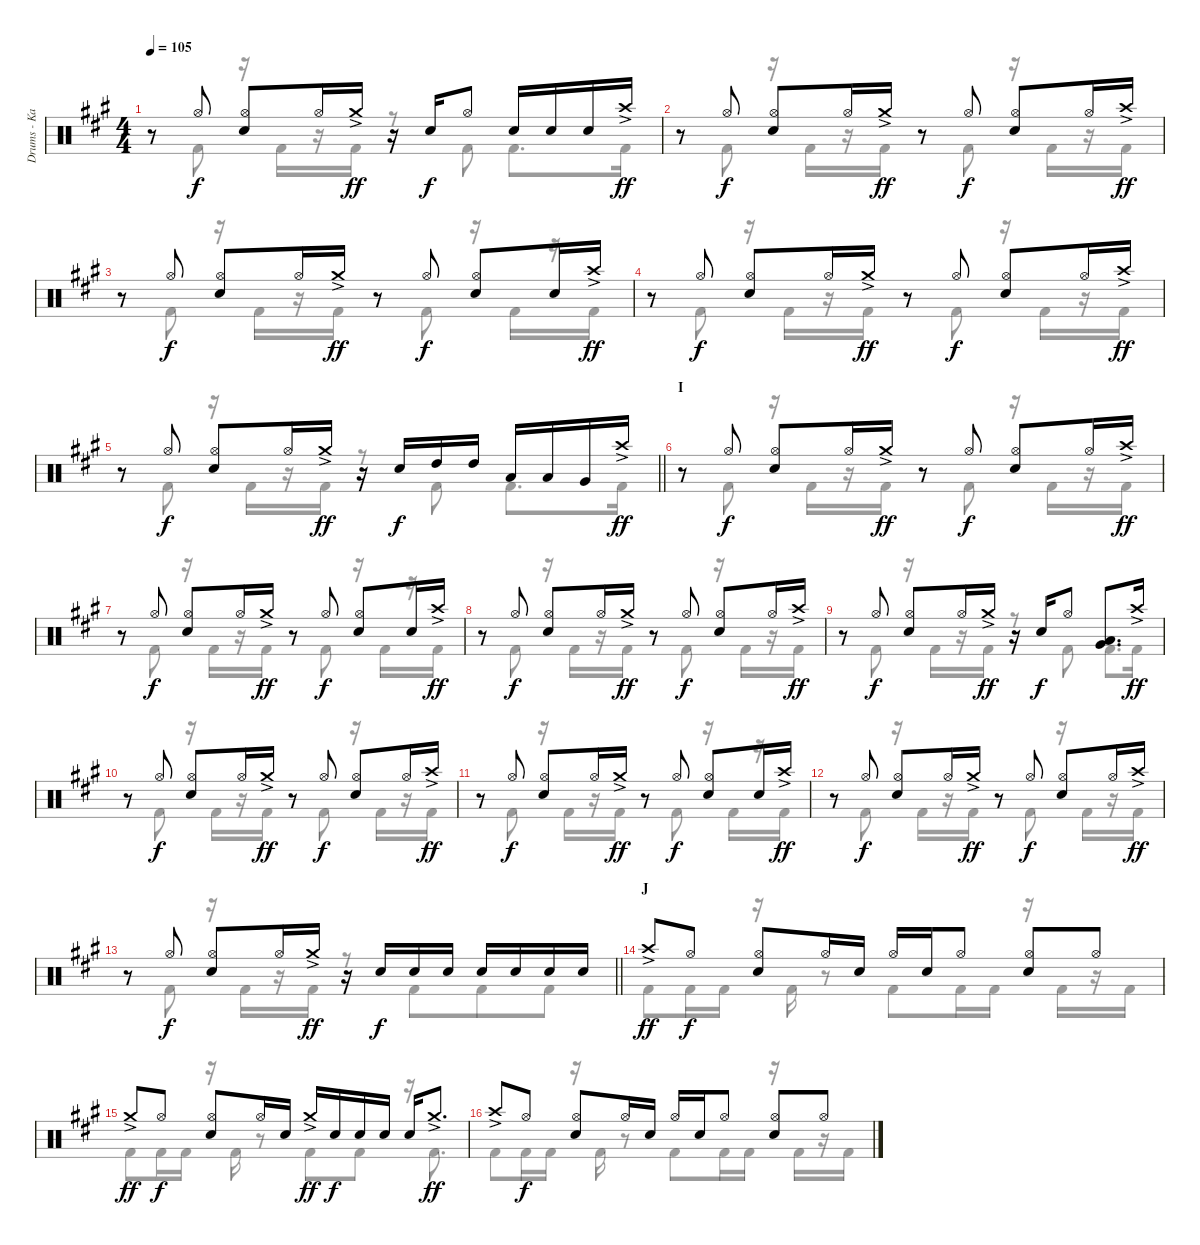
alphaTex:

\track ("Drums - Kai" "Drums - Ka") {instrument percussion}
\staff {score}
\articulation defaults
\voice
\ts (4 4)
\tempo 105
\clef neutral
\ks a
r.8{dy ff} "Hi-Hat (open)".8{dy f} ("Hi-Hat (open)" "Electric Snare (hit)").8 "Hi-Hat (open)".16 "Crash medium (hit)"{ac}.16{dy ff} r.16 "Electric Snare (hit)".16{dy f} "Hi-Hat (open)".8 "Electric Snare (hit)".16 "Electric Snare (hit)".16 "Electric Snare (hit)".16 "Crash high (hit)"{ac}.16{dy ff} |
r.8 "Hi-Hat (open)".8{dy f} ("Hi-Hat (open)" "Electric Snare (hit)").8 "Hi-Hat (open)".16 "Crash medium (hit)"{ac}.16{dy ff} r.8 "Hi-Hat (open)".8{dy f} ("Hi-Hat (open)" "Electric Snare (hit)").8 "Hi-Hat (open)".16 "Crash high (hit)"{ac}.16{dy ff} |
r.8 "Hi-Hat (open)".8{dy f} ("Hi-Hat (open)" "Electric Snare (hit)").8 "Hi-Hat (open)".16 "Crash medium (hit)"{ac}.16{dy ff} r.8 "Hi-Hat (open)".8{dy f} ("Hi-Hat (open)" "Electric Snare (hit)").8 "Electric Snare (hit)".16 "Crash high (hit)"{ac}.16{dy ff} |
r.8 "Hi-Hat (open)".8{dy f} ("Hi-Hat (open)" "Electric Snare (hit)").8 "Hi-Hat (open)".16 "Crash medium (hit)"{ac}.16{dy ff} r.8 "Hi-Hat (open)".8{dy f} ("Hi-Hat (open)" "Electric Snare (hit)").8 "Hi-Hat (open)".16 "Crash high (hit)"{ac}.16{dy ff} |
\barLineRight lightlight
r.8 "Hi-Hat (open)".8{dy f} ("Hi-Hat (open)" "Electric Snare (hit)").8 "Hi-Hat (open)".16 "Crash medium (hit)"{ac}.16{dy ff} r.16 "Electric Snare (hit)".16{dy f} "High Tom (hit)".16 "High Tom (hit)".16 "Low Tom (hit)".16 "Low Tom (hit)".16 "Very Low Tom (hit)".16 "Crash high (hit)"{ac}.16{dy ff} |
\section ("" "I")
r.8 "Hi-Hat (open)".8{dy f} ("Hi-Hat (open)" "Electric Snare (hit)").8 "Hi-Hat (open)".16 "Crash medium (hit)"{ac}.16{dy ff} r.8 "Hi-Hat (open)".8{dy f} ("Hi-Hat (open)" "Electric Snare (hit)").8 "Hi-Hat (open)".16 "Crash high (hit)"{ac}.16{dy ff} |
r.8 "Hi-Hat (open)".8{dy f} ("Hi-Hat (open)" "Electric Snare (hit)").8 "Hi-Hat (open)".16 "Crash medium (hit)"{ac}.16{dy ff} r.8 "Hi-Hat (open)".8{dy f} ("Hi-Hat (open)" "Electric Snare (hit)").8 "Electric Snare (hit)".16 "Crash high (hit)"{ac}.16{dy ff} |
r.8 "Hi-Hat (open)".8{dy f} ("Hi-Hat (open)" "Electric Snare (hit)").8 "Hi-Hat (open)".16 "Crash medium (hit)"{ac}.16{dy ff} r.8 "Hi-Hat (open)".8{dy f} ("Hi-Hat (open)" "Electric Snare (hit)").8 "Hi-Hat (open)".16 "Crash high (hit)"{ac}.16{dy ff} |
r.8 "Hi-Hat (open)".8{dy f} ("Hi-Hat (open)" "Electric Snare (hit)").8 "Hi-Hat (open)".16 "Crash medium (hit)"{ac}.16{dy ff} r.16 "Electric Snare (hit)".16{dy f} "Hi-Hat (open)".8 ("Low Tom (hit)" "Very Low Tom (hit)").8{d} "Crash high (hit)"{ac}.16{dy ff} |
r.8 "Hi-Hat (open)".8{dy f} ("Hi-Hat (open)" "Electric Snare (hit)").8 "Hi-Hat (open)".16 "Crash medium (hit)"{ac}.16{dy ff} r.8 "Hi-Hat (open)".8{dy f} ("Hi-Hat (open)" "Electric Snare (hit)").8 "Hi-Hat (open)".16 "Crash high (hit)"{ac}.16{dy ff} |
r.8 "Hi-Hat (open)".8{dy f} ("Hi-Hat (open)" "Electric Snare (hit)").8 "Hi-Hat (open)".16 "Crash medium (hit)"{ac}.16{dy ff} r.8 "Hi-Hat (open)".8{dy f} ("Hi-Hat (open)" "Electric Snare (hit)").8 "Electric Snare (hit)".16 "Crash high (hit)"{ac}.16{dy ff} |
r.8 "Hi-Hat (open)".8{dy f} ("Hi-Hat (open)" "Electric Snare (hit)").8 "Hi-Hat (open)".16 "Crash medium (hit)"{ac}.16{dy ff} r.8 "Hi-Hat (open)".8{dy f} ("Hi-Hat (open)" "Electric Snare (hit)").8 "Hi-Hat (open)".16 "Crash high (hit)"{ac}.16{dy ff} |
\barLineRight lightlight
r.8 "Hi-Hat (open)".8{dy f} ("Hi-Hat (open)" "Electric Snare (hit)").8 "Hi-Hat (open)".16 "Crash medium (hit)"{ac}.16{dy ff} r.16 "Electric Snare (hit)".16{dy f} "Electric Snare (hit)".16 "Electric Snare (hit)".16 "Electric Snare (hit)".16 "Electric Snare (hit)".16 "Electric Snare (hit)".16 "Electric Snare (hit)".16 |
\section ("" "J")
"Crash high (hit)"{ac}.8{dy ff} "Hi-Hat (open)".8{dy f} ("Hi-Hat (open)" "Electric Snare (hit)").8 "Hi-Hat (open)".16 "Electric Snare (hit)".16 "Hi-Hat (open)".16 "Electric Snare (hit)".16 "Hi-Hat (open)".8 ("Hi-Hat (open)" "Electric Snare (hit)").8 "Hi-Hat (open)".8 |
"Crash medium (hit)"{ac}.8{dy ff} "Hi-Hat (open)".8{dy f} ("Hi-Hat (open)" "Electric Snare (hit)").8 "Hi-Hat (open)".16 "Electric Snare (hit)".16 "Crash medium (hit)"{ac}.16{dy ff} "Electric Snare (hit)".16{dy f} "Electric Snare (hit)".16 "Electric Snare (hit)".16 "Electric Snare (hit)".16 "Crash medium (hit)"{ac}.8{d dy ff} |
"Crash high (hit)"{ac}.8 "Hi-Hat (open)".8{dy f} ("Hi-Hat (open)" "Electric Snare (hit)").8 "Hi-Hat (open)".16 "Electric Snare (hit)".16 "Hi-Hat (open)".16 "Electric Snare (hit)".16 "Hi-Hat (open)".8 ("Hi-Hat (open)" "Electric Snare (hit)").8 "Hi-Hat (open)".8
\voice
\clef neutral
\ottava regular
\simile none
\ks a
r.8{dy f} "Kick (hit) 2".8 r.16 "Kick (hit) 2".16 r.16 "Kick (hit) 2".16 r.8 "Kick (hit) 2".8 "Kick (hit) 2".8{d} "Kick (hit) 2".16 |
r.8 "Kick (hit) 2".8 r.16 "Kick (hit) 2".16 r.16 "Kick (hit) 2".16 r.8 "Kick (hit) 2".8 r.16 "Kick (hit) 2".16 r.16 "Kick (hit) 2".16 |
r.8 "Kick (hit) 2".8 r.16 "Kick (hit) 2".16 r.16 "Kick (hit) 2".16 r.8 "Kick (hit) 2".8 r.16 "Kick (hit) 2".16 r.16 "Kick (hit) 2".16 |
r.8 "Kick (hit) 2".8 r.16 "Kick (hit) 2".16 r.16 "Kick (hit) 2".16 r.8 "Kick (hit) 2".8 r.16 "Kick (hit) 2".16 r.16 "Kick (hit) 2".16 |
\barLineRight lightlight
r.8 "Kick (hit) 2".8 r.16 "Kick (hit) 2".16 r.16 "Kick (hit) 2".16 r.8 "Kick (hit) 2".8 "Kick (hit) 2".8{d} "Kick (hit) 2".16 |
r.8 "Kick (hit) 2".8 r.16 "Kick (hit) 2".16 r.16 "Kick (hit) 2".16 r.8 "Kick (hit) 2".8 r.16 "Kick (hit) 2".16 r.16 "Kick (hit) 2".16 |
r.8 "Kick (hit) 2".8 r.16 "Kick (hit) 2".16 r.16 "Kick (hit) 2".16 r.8 "Kick (hit) 2".8 r.16 "Kick (hit) 2".16 r.16 "Kick (hit) 2".16 |
r.8 "Kick (hit) 2".8 r.16 "Kick (hit) 2".16 r.16 "Kick (hit) 2".16 r.8 "Kick (hit) 2".8 r.16 "Kick (hit) 2".16 r.16 "Kick (hit) 2".16 |
r.8 "Kick (hit) 2".8 r.16 "Kick (hit) 2".16 r.16 "Kick (hit) 2".16 r.8 "Kick (hit) 2".8 "Kick (hit) 2".8{d} "Kick (hit) 2".16 |
r.8 "Kick (hit) 2".8 r.16 "Kick (hit) 2".16 r.16 "Kick (hit) 2".16 r.8 "Kick (hit) 2".8 r.16 "Kick (hit) 2".16 r.16 "Kick (hit) 2".16 |
r.8 "Kick (hit) 2".8 r.16 "Kick (hit) 2".16 r.16 "Kick (hit) 2".16 r.8 "Kick (hit) 2".8 r.16 "Kick (hit) 2".16 r.16 "Kick (hit) 2".16 |
r.8 "Kick (hit) 2".8 r.16 "Kick (hit) 2".16 r.16 "Kick (hit) 2".16 r.8 "Kick (hit) 2".8 r.16 "Kick (hit) 2".16 r.16 "Kick (hit) 2".16 |
\barLineRight lightlight
r.8 "Kick (hit) 2".8 r.16 "Kick (hit) 2".16 r.16 "Kick (hit) 2".16 r.8 "Kick (hit) 2".8{beam merge} "Kick (hit) 2".8 "Kick (hit) 2".8 |
"Kick (hit) 2".8 "Kick (hit) 2".16 "Kick (hit) 2".16 r.16 "Kick (hit) 2".16 r.8 "Kick (hit) 2".8 "Kick (hit) 2".16 "Kick (hit) 2".16 r.16 "Kick (hit) 2".16 r.16 "Kick (hit) 2".16 |
"Kick (hit) 2".8 "Kick (hit) 2".16 "Kick (hit) 2".16 r.16 "Kick (hit) 2".16 r.8 "Kick (hit) 2".8 "Kick (hit) 2".8 r.16 "Kick (hit) 2".8{d} |
"Kick (hit) 2".8 "Kick (hit) 2".16 "Kick (hit) 2".16 r.16 "Kick (hit) 2".16 r.8 "Kick (hit) 2".8 "Kick (hit) 2".16 "Kick (hit) 2".16 r.16 "Kick (hit) 2".16 r.16 "Kick (hit) 2".16
